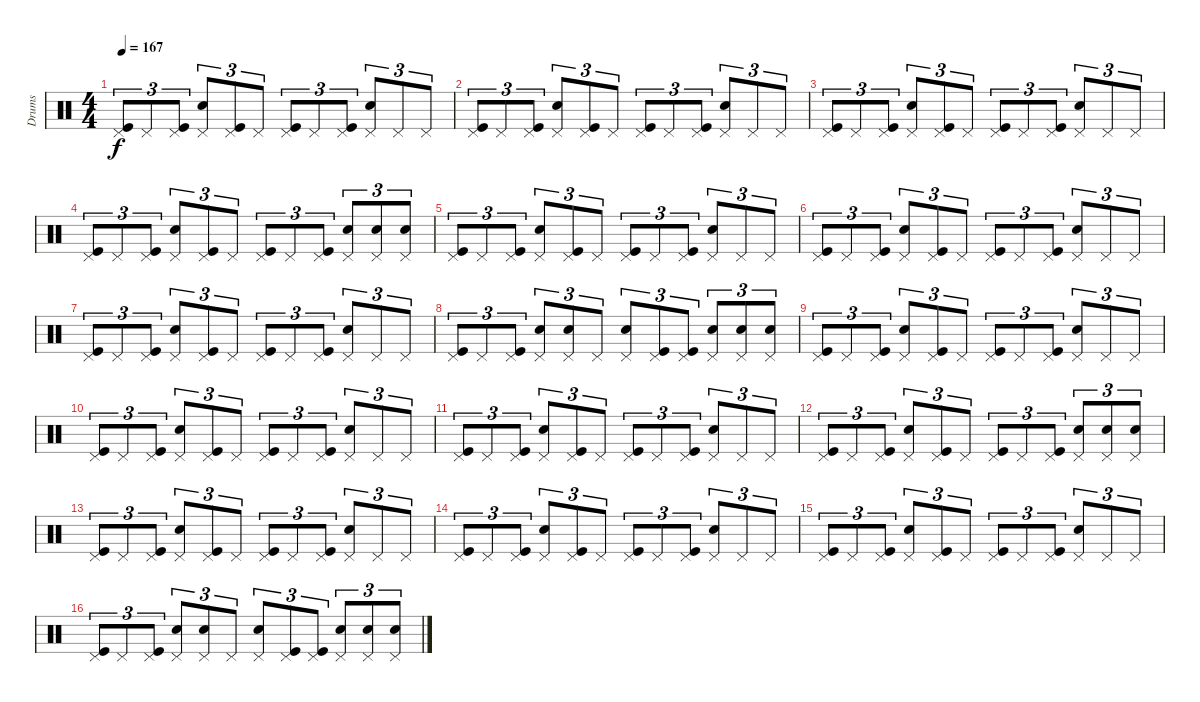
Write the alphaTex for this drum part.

\track ("Drums" "Drums") {instrument percussion}
\staff {score}
\articulation defaults
\ts (4 4)
\tempo 167
\clef neutral
\ks c
("Pedal Hi-Hat (hit)" "Kick (hit)").8{tu (3 2) dy f} "Pedal Hi-Hat (hit)".8{tu (3 2)} ("Pedal Hi-Hat (hit)" "Kick (hit)").8{tu (3 2)} ("Pedal Hi-Hat (hit)" "Snare (hit) 2").8{tu (3 2)} ("Pedal Hi-Hat (hit)" "Kick (hit)").8{tu (3 2)} "Pedal Hi-Hat (hit)".8{tu (3 2)} ("Pedal Hi-Hat (hit)" "Kick (hit)").8{tu (3 2)} "Pedal Hi-Hat (hit)".8{tu (3 2)} ("Pedal Hi-Hat (hit)" "Kick (hit)").8{tu (3 2)} ("Pedal Hi-Hat (hit)" "Snare (hit) 2").8{tu (3 2)} "Pedal Hi-Hat (hit)".8{tu (3 2)} "Pedal Hi-Hat (hit)".8{tu (3 2)} |
("Pedal Hi-Hat (hit)" "Kick (hit)").8{tu (3 2)} "Pedal Hi-Hat (hit)".8{tu (3 2)} ("Pedal Hi-Hat (hit)" "Kick (hit)").8{tu (3 2)} ("Pedal Hi-Hat (hit)" "Snare (hit) 2").8{tu (3 2)} ("Pedal Hi-Hat (hit)" "Kick (hit)").8{tu (3 2)} "Pedal Hi-Hat (hit)".8{tu (3 2)} ("Pedal Hi-Hat (hit)" "Kick (hit)").8{tu (3 2)} "Pedal Hi-Hat (hit)".8{tu (3 2)} ("Pedal Hi-Hat (hit)" "Kick (hit)").8{tu (3 2)} ("Pedal Hi-Hat (hit)" "Snare (hit) 2").8{tu (3 2)} "Pedal Hi-Hat (hit)".8{tu (3 2)} "Pedal Hi-Hat (hit)".8{tu (3 2)} |
("Pedal Hi-Hat (hit)" "Kick (hit)").8{tu (3 2)} "Pedal Hi-Hat (hit)".8{tu (3 2)} ("Pedal Hi-Hat (hit)" "Kick (hit)").8{tu (3 2)} ("Pedal Hi-Hat (hit)" "Snare (hit) 2").8{tu (3 2)} ("Pedal Hi-Hat (hit)" "Kick (hit)").8{tu (3 2)} "Pedal Hi-Hat (hit)".8{tu (3 2)} ("Pedal Hi-Hat (hit)" "Kick (hit)").8{tu (3 2)} "Pedal Hi-Hat (hit)".8{tu (3 2)} ("Pedal Hi-Hat (hit)" "Kick (hit)").8{tu (3 2)} ("Pedal Hi-Hat (hit)" "Snare (hit) 2").8{tu (3 2)} "Pedal Hi-Hat (hit)".8{tu (3 2)} "Pedal Hi-Hat (hit)".8{tu (3 2)} |
("Pedal Hi-Hat (hit)" "Kick (hit)").8{tu (3 2)} "Pedal Hi-Hat (hit)".8{tu (3 2)} ("Pedal Hi-Hat (hit)" "Kick (hit)").8{tu (3 2)} ("Pedal Hi-Hat (hit)" "Snare (hit) 2").8{tu (3 2)} ("Pedal Hi-Hat (hit)" "Kick (hit)").8{tu (3 2)} "Pedal Hi-Hat (hit)".8{tu (3 2)} ("Pedal Hi-Hat (hit)" "Kick (hit)").8{tu (3 2)} "Pedal Hi-Hat (hit)".8{tu (3 2)} ("Pedal Hi-Hat (hit)" "Kick (hit)").8{tu (3 2)} ("Pedal Hi-Hat (hit)" "Snare (hit) 2").8{tu (3 2)} ("Pedal Hi-Hat (hit)" "Snare (hit) 2").8{tu (3 2)} ("Pedal Hi-Hat (hit)" "Snare (hit) 2").8{tu (3 2)} |
("Pedal Hi-Hat (hit)" "Kick (hit)").8{tu (3 2)} "Pedal Hi-Hat (hit)".8{tu (3 2)} ("Pedal Hi-Hat (hit)" "Kick (hit)").8{tu (3 2)} ("Pedal Hi-Hat (hit)" "Snare (hit) 2").8{tu (3 2)} ("Pedal Hi-Hat (hit)" "Kick (hit)").8{tu (3 2)} "Pedal Hi-Hat (hit)".8{tu (3 2)} ("Pedal Hi-Hat (hit)" "Kick (hit)").8{tu (3 2)} "Pedal Hi-Hat (hit)".8{tu (3 2)} ("Pedal Hi-Hat (hit)" "Kick (hit)").8{tu (3 2)} ("Pedal Hi-Hat (hit)" "Snare (hit) 2").8{tu (3 2)} "Pedal Hi-Hat (hit)".8{tu (3 2)} "Pedal Hi-Hat (hit)".8{tu (3 2)} |
("Pedal Hi-Hat (hit)" "Kick (hit)").8{tu (3 2)} "Pedal Hi-Hat (hit)".8{tu (3 2)} ("Pedal Hi-Hat (hit)" "Kick (hit)").8{tu (3 2)} ("Pedal Hi-Hat (hit)" "Snare (hit) 2").8{tu (3 2)} ("Pedal Hi-Hat (hit)" "Kick (hit)").8{tu (3 2)} "Pedal Hi-Hat (hit)".8{tu (3 2)} ("Pedal Hi-Hat (hit)" "Kick (hit)").8{tu (3 2)} "Pedal Hi-Hat (hit)".8{tu (3 2)} ("Pedal Hi-Hat (hit)" "Kick (hit)").8{tu (3 2)} ("Pedal Hi-Hat (hit)" "Snare (hit) 2").8{tu (3 2)} "Pedal Hi-Hat (hit)".8{tu (3 2)} "Pedal Hi-Hat (hit)".8{tu (3 2)} |
("Pedal Hi-Hat (hit)" "Kick (hit)").8{tu (3 2)} "Pedal Hi-Hat (hit)".8{tu (3 2)} ("Pedal Hi-Hat (hit)" "Kick (hit)").8{tu (3 2)} ("Pedal Hi-Hat (hit)" "Snare (hit) 2").8{tu (3 2)} ("Pedal Hi-Hat (hit)" "Kick (hit)").8{tu (3 2)} "Pedal Hi-Hat (hit)".8{tu (3 2)} ("Pedal Hi-Hat (hit)" "Kick (hit)").8{tu (3 2)} "Pedal Hi-Hat (hit)".8{tu (3 2)} ("Pedal Hi-Hat (hit)" "Kick (hit)").8{tu (3 2)} ("Pedal Hi-Hat (hit)" "Snare (hit) 2").8{tu (3 2)} "Pedal Hi-Hat (hit)".8{tu (3 2)} "Pedal Hi-Hat (hit)".8{tu (3 2)} |
("Pedal Hi-Hat (hit)" "Kick (hit)").8{tu (3 2)} "Pedal Hi-Hat (hit)".8{tu (3 2)} ("Pedal Hi-Hat (hit)" "Kick (hit)").8{tu (3 2)} ("Pedal Hi-Hat (hit)" "Snare (hit) 2").8{tu (3 2)} ("Pedal Hi-Hat (hit)" "Snare (hit) 2").8{tu (3 2)} "Pedal Hi-Hat (hit)".8{tu (3 2)} ("Pedal Hi-Hat (hit)" "Snare (hit) 2").8{tu (3 2)} ("Pedal Hi-Hat (hit)" "Kick (hit)").8{tu (3 2)} ("Pedal Hi-Hat (hit)" "Kick (hit)").8{tu (3 2)} ("Pedal Hi-Hat (hit)" "Snare (hit) 2").8{tu (3 2)} ("Pedal Hi-Hat (hit)" "Snare (hit) 2").8{tu (3 2)} ("Pedal Hi-Hat (hit)" "Snare (hit) 2").8{tu (3 2)} |
("Pedal Hi-Hat (hit)" "Kick (hit)").8{tu (3 2)} "Pedal Hi-Hat (hit)".8{tu (3 2)} ("Pedal Hi-Hat (hit)" "Kick (hit)").8{tu (3 2)} ("Pedal Hi-Hat (hit)" "Snare (hit) 2").8{tu (3 2)} ("Pedal Hi-Hat (hit)" "Kick (hit)").8{tu (3 2)} "Pedal Hi-Hat (hit)".8{tu (3 2)} ("Pedal Hi-Hat (hit)" "Kick (hit)").8{tu (3 2)} "Pedal Hi-Hat (hit)".8{tu (3 2)} ("Pedal Hi-Hat (hit)" "Kick (hit)").8{tu (3 2)} ("Pedal Hi-Hat (hit)" "Snare (hit) 2").8{tu (3 2)} "Pedal Hi-Hat (hit)".8{tu (3 2)} "Pedal Hi-Hat (hit)".8{tu (3 2)} |
("Pedal Hi-Hat (hit)" "Kick (hit)").8{tu (3 2)} "Pedal Hi-Hat (hit)".8{tu (3 2)} ("Pedal Hi-Hat (hit)" "Kick (hit)").8{tu (3 2)} ("Pedal Hi-Hat (hit)" "Snare (hit) 2").8{tu (3 2)} ("Pedal Hi-Hat (hit)" "Kick (hit)").8{tu (3 2)} "Pedal Hi-Hat (hit)".8{tu (3 2)} ("Pedal Hi-Hat (hit)" "Kick (hit)").8{tu (3 2)} "Pedal Hi-Hat (hit)".8{tu (3 2)} ("Pedal Hi-Hat (hit)" "Kick (hit)").8{tu (3 2)} ("Pedal Hi-Hat (hit)" "Snare (hit) 2").8{tu (3 2)} "Pedal Hi-Hat (hit)".8{tu (3 2)} "Pedal Hi-Hat (hit)".8{tu (3 2)} |
("Pedal Hi-Hat (hit)" "Kick (hit)").8{tu (3 2)} "Pedal Hi-Hat (hit)".8{tu (3 2)} ("Pedal Hi-Hat (hit)" "Kick (hit)").8{tu (3 2)} ("Pedal Hi-Hat (hit)" "Snare (hit) 2").8{tu (3 2)} ("Pedal Hi-Hat (hit)" "Kick (hit)").8{tu (3 2)} "Pedal Hi-Hat (hit)".8{tu (3 2)} ("Pedal Hi-Hat (hit)" "Kick (hit)").8{tu (3 2)} "Pedal Hi-Hat (hit)".8{tu (3 2)} ("Pedal Hi-Hat (hit)" "Kick (hit)").8{tu (3 2)} ("Pedal Hi-Hat (hit)" "Snare (hit) 2").8{tu (3 2)} "Pedal Hi-Hat (hit)".8{tu (3 2)} "Pedal Hi-Hat (hit)".8{tu (3 2)} |
("Pedal Hi-Hat (hit)" "Kick (hit)").8{tu (3 2)} "Pedal Hi-Hat (hit)".8{tu (3 2)} ("Pedal Hi-Hat (hit)" "Kick (hit)").8{tu (3 2)} ("Pedal Hi-Hat (hit)" "Snare (hit) 2").8{tu (3 2)} ("Pedal Hi-Hat (hit)" "Kick (hit)").8{tu (3 2)} "Pedal Hi-Hat (hit)".8{tu (3 2)} ("Pedal Hi-Hat (hit)" "Kick (hit)").8{tu (3 2)} "Pedal Hi-Hat (hit)".8{tu (3 2)} ("Pedal Hi-Hat (hit)" "Kick (hit)").8{tu (3 2)} ("Pedal Hi-Hat (hit)" "Snare (hit) 2").8{tu (3 2)} ("Pedal Hi-Hat (hit)" "Snare (hit) 2").8{tu (3 2)} ("Pedal Hi-Hat (hit)" "Snare (hit) 2").8{tu (3 2)} |
("Pedal Hi-Hat (hit)" "Kick (hit)").8{tu (3 2)} "Pedal Hi-Hat (hit)".8{tu (3 2)} ("Pedal Hi-Hat (hit)" "Kick (hit)").8{tu (3 2)} ("Pedal Hi-Hat (hit)" "Snare (hit) 2").8{tu (3 2)} ("Pedal Hi-Hat (hit)" "Kick (hit)").8{tu (3 2)} "Pedal Hi-Hat (hit)".8{tu (3 2)} ("Pedal Hi-Hat (hit)" "Kick (hit)").8{tu (3 2)} "Pedal Hi-Hat (hit)".8{tu (3 2)} ("Pedal Hi-Hat (hit)" "Kick (hit)").8{tu (3 2)} ("Pedal Hi-Hat (hit)" "Snare (hit) 2").8{tu (3 2)} "Pedal Hi-Hat (hit)".8{tu (3 2)} "Pedal Hi-Hat (hit)".8{tu (3 2)} |
("Pedal Hi-Hat (hit)" "Kick (hit)").8{tu (3 2)} "Pedal Hi-Hat (hit)".8{tu (3 2)} ("Pedal Hi-Hat (hit)" "Kick (hit)").8{tu (3 2)} ("Pedal Hi-Hat (hit)" "Snare (hit) 2").8{tu (3 2)} ("Pedal Hi-Hat (hit)" "Kick (hit)").8{tu (3 2)} "Pedal Hi-Hat (hit)".8{tu (3 2)} ("Pedal Hi-Hat (hit)" "Kick (hit)").8{tu (3 2)} "Pedal Hi-Hat (hit)".8{tu (3 2)} ("Pedal Hi-Hat (hit)" "Kick (hit)").8{tu (3 2)} ("Pedal Hi-Hat (hit)" "Snare (hit) 2").8{tu (3 2)} "Pedal Hi-Hat (hit)".8{tu (3 2)} "Pedal Hi-Hat (hit)".8{tu (3 2)} |
("Pedal Hi-Hat (hit)" "Kick (hit)").8{tu (3 2)} "Pedal Hi-Hat (hit)".8{tu (3 2)} ("Pedal Hi-Hat (hit)" "Kick (hit)").8{tu (3 2)} ("Pedal Hi-Hat (hit)" "Snare (hit) 2").8{tu (3 2)} ("Pedal Hi-Hat (hit)" "Kick (hit)").8{tu (3 2)} "Pedal Hi-Hat (hit)".8{tu (3 2)} ("Pedal Hi-Hat (hit)" "Kick (hit)").8{tu (3 2)} "Pedal Hi-Hat (hit)".8{tu (3 2)} ("Pedal Hi-Hat (hit)" "Kick (hit)").8{tu (3 2)} ("Pedal Hi-Hat (hit)" "Snare (hit) 2").8{tu (3 2)} "Pedal Hi-Hat (hit)".8{tu (3 2)} "Pedal Hi-Hat (hit)".8{tu (3 2)} |
("Pedal Hi-Hat (hit)" "Kick (hit)").8{tu (3 2)} "Pedal Hi-Hat (hit)".8{tu (3 2)} ("Pedal Hi-Hat (hit)" "Kick (hit)").8{tu (3 2)} ("Pedal Hi-Hat (hit)" "Snare (hit) 2").8{tu (3 2)} ("Pedal Hi-Hat (hit)" "Snare (hit) 2").8{tu (3 2)} "Pedal Hi-Hat (hit)".8{tu (3 2)} ("Pedal Hi-Hat (hit)" "Snare (hit) 2").8{tu (3 2)} ("Pedal Hi-Hat (hit)" "Kick (hit)").8{tu (3 2)} ("Pedal Hi-Hat (hit)" "Kick (hit)").8{tu (3 2)} ("Pedal Hi-Hat (hit)" "Snare (hit) 2").8{tu (3 2)} ("Pedal Hi-Hat (hit)" "Snare (hit) 2").8{tu (3 2)} ("Pedal Hi-Hat (hit)" "Snare (hit) 2").8{tu (3 2)}
